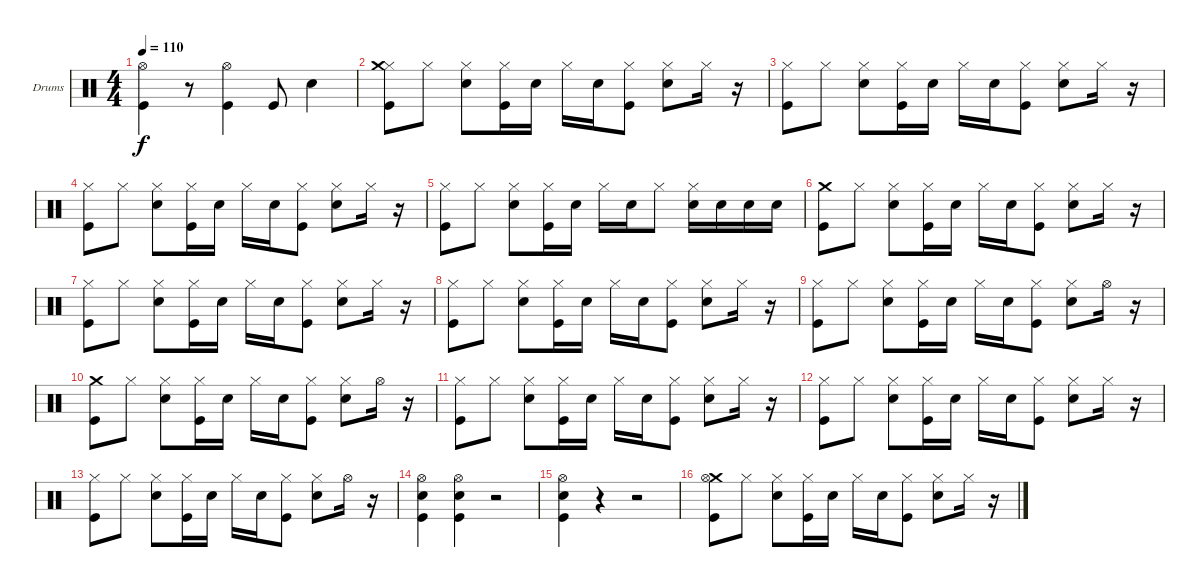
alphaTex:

\bracketExtendMode groupsimilarinstruments
\firstSystemTrackNameOrientation horizontal
\otherSystemsTrackNameOrientation horizontal
\track ("Drumkit" "Drums") {instrument percussion}
\staff {score}
\articulation defaults
\ts (4 4)
\tempo 110
\clef neutral
\ks c
("Hi-Hat (open)" "Kick (hit)").4{dy f} r.8 ("Hi-Hat (open)" "Kick (hit)").4 "Kick (hit)".8 "Snare (hit) 2".4 |
("Hi-Hat (closed)" "Crash medium (hit)" "Kick (hit)").8 "Hi-Hat (closed)".8 ("Hi-Hat (closed)" "Snare (hit) 2").8 ("Hi-Hat (closed)" "Kick (hit)").16 "Snare (hit) 2".16 "Hi-Hat (closed)".16 "Snare (hit) 2".16 ("Hi-Hat (closed)" "Kick (hit)").8 ("Hi-Hat (closed)" "Snare (hit) 2").8 "Hi-Hat (closed)".16 r.16 |
("Hi-Hat (closed)" "Kick (hit)").8 "Hi-Hat (closed)".8 ("Hi-Hat (closed)" "Snare (hit) 2").8 ("Hi-Hat (closed)" "Kick (hit)").16 "Snare (hit) 2".16 "Hi-Hat (closed)".16 "Snare (hit) 2".16 ("Hi-Hat (closed)" "Kick (hit)").8 ("Hi-Hat (closed)" "Snare (hit) 2").8 "Hi-Hat (closed)".16 r.16 |
("Hi-Hat (closed)" "Kick (hit)").8 "Hi-Hat (closed)".8 ("Hi-Hat (closed)" "Snare (hit) 2").8 ("Hi-Hat (closed)" "Kick (hit)").16 "Snare (hit) 2".16 "Hi-Hat (closed)".16 "Snare (hit) 2".16 ("Hi-Hat (closed)" "Kick (hit)").8 ("Hi-Hat (closed)" "Snare (hit) 2").8 "Hi-Hat (closed)".16 r.16 |
("Hi-Hat (closed)" "Kick (hit)").8 "Hi-Hat (closed)".8 ("Hi-Hat (closed)" "Snare (hit) 2").8 ("Hi-Hat (closed)" "Kick (hit)").16 "Snare (hit) 2".16 "Hi-Hat (closed)".16 "Snare (hit) 2".16 "Hi-Hat (closed)".8 ("Hi-Hat (closed)" "Snare (hit) 2").16 "Snare (hit) 2".16 "Snare (hit) 2".16 "Snare (hit) 2".16 |
("Crash medium (hit)" "Kick (hit)").8 "Hi-Hat (closed)".8 ("Hi-Hat (closed)" "Snare (hit) 2").8 ("Hi-Hat (closed)" "Kick (hit)").16 "Snare (hit) 2".16 "Hi-Hat (closed)".16 "Snare (hit) 2".16 ("Hi-Hat (closed)" "Kick (hit)").8 ("Hi-Hat (closed)" "Snare (hit) 2").8 "Hi-Hat (closed)".16 r.16 |
("Hi-Hat (closed)" "Kick (hit)").8 "Hi-Hat (closed)".8 ("Hi-Hat (closed)" "Snare (hit) 2").8 ("Hi-Hat (closed)" "Kick (hit)").16 "Snare (hit) 2".16 "Hi-Hat (closed)".16 "Snare (hit) 2".16 ("Hi-Hat (closed)" "Kick (hit)").8 ("Hi-Hat (closed)" "Snare (hit) 2").8 "Hi-Hat (closed)".16 r.16 |
("Hi-Hat (closed)" "Kick (hit)").8 "Hi-Hat (closed)".8 ("Hi-Hat (closed)" "Snare (hit) 2").8 ("Hi-Hat (closed)" "Kick (hit)").16 "Snare (hit) 2".16 "Hi-Hat (closed)".16 "Snare (hit) 2".16 ("Hi-Hat (closed)" "Kick (hit)").8 ("Hi-Hat (closed)" "Snare (hit) 2").8 "Hi-Hat (closed)".16 r.16 |
("Hi-Hat (closed)" "Kick (hit)").8 "Hi-Hat (closed)".8 ("Hi-Hat (closed)" "Snare (hit) 2").8 ("Hi-Hat (closed)" "Kick (hit)").16 "Snare (hit) 2".16 "Hi-Hat (closed)".16 "Snare (hit) 2".16 ("Hi-Hat (closed)" "Kick (hit)").8 ("Hi-Hat (closed)" "Snare (hit) 2").8 "Hi-Hat (open)".16 r.16 |
("Crash medium (hit)" "Kick (hit)").8 "Hi-Hat (closed)".8 ("Hi-Hat (closed)" "Snare (hit) 2").8 ("Hi-Hat (closed)" "Kick (hit)").16 "Snare (hit) 2".16 "Hi-Hat (closed)".16 "Snare (hit) 2".16 ("Hi-Hat (closed)" "Kick (hit)").8 ("Hi-Hat (closed)" "Snare (hit) 2").8 "Hi-Hat (open)".16 r.16 |
("Hi-Hat (closed)" "Kick (hit)").8 "Hi-Hat (closed)".8 ("Hi-Hat (closed)" "Snare (hit) 2").8 ("Hi-Hat (closed)" "Kick (hit)").16 "Snare (hit) 2".16 "Hi-Hat (closed)".16 "Snare (hit) 2".16 ("Hi-Hat (closed)" "Kick (hit)").8 ("Hi-Hat (closed)" "Snare (hit) 2").8 "Hi-Hat (closed)".16 r.16 |
("Hi-Hat (closed)" "Kick (hit)").8 "Hi-Hat (closed)".8 ("Hi-Hat (closed)" "Snare (hit) 2").8 ("Hi-Hat (closed)" "Kick (hit)").16 "Snare (hit) 2".16 "Hi-Hat (closed)".16 "Snare (hit) 2".16 ("Hi-Hat (closed)" "Kick (hit)").8 ("Hi-Hat (closed)" "Snare (hit) 2").8 "Hi-Hat (closed)".16 r.16 |
("Hi-Hat (closed)" "Kick (hit)").8 "Hi-Hat (closed)".8 ("Hi-Hat (closed)" "Snare (hit) 2").8 ("Hi-Hat (closed)" "Kick (hit)").16 "Snare (hit) 2".16 "Hi-Hat (closed)".16 "Snare (hit) 2".16 ("Hi-Hat (closed)" "Kick (hit)").8 ("Hi-Hat (closed)" "Snare (hit) 2").8 "Hi-Hat (open)".16 r.16 |
("Kick (hit)" "Snare (hit) 2" "Hi-Hat (open)").4 ("Kick (hit)" "Snare (hit) 2" "Hi-Hat (open)").4 r.2 |
("Kick (hit)" "Snare (hit) 2" "Hi-Hat (open)").4 r.4 r.2 |
("Crash medium (hit)" "Hi-Hat (open)" "Kick (hit)").8 "Hi-Hat (closed)".8 ("Hi-Hat (closed)" "Snare (hit) 2").8 ("Hi-Hat (closed)" "Kick (hit)").16 "Snare (hit) 2".16 "Hi-Hat (closed)".16 "Snare (hit) 2".16 ("Hi-Hat (closed)" "Kick (hit)").8 ("Hi-Hat (closed)" "Snare (hit) 2").8 "Hi-Hat (closed)".16 r.16
